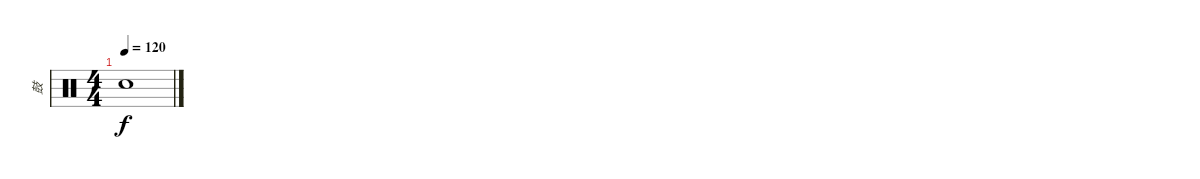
\track ("鼓" "鼓") {instrument percussion}
\staff {score}
\articulation defaults
\ts (4 4)
\tempo 120
\clef neutral
\ks c "Snare (hit)"{t}.1{dy f}
